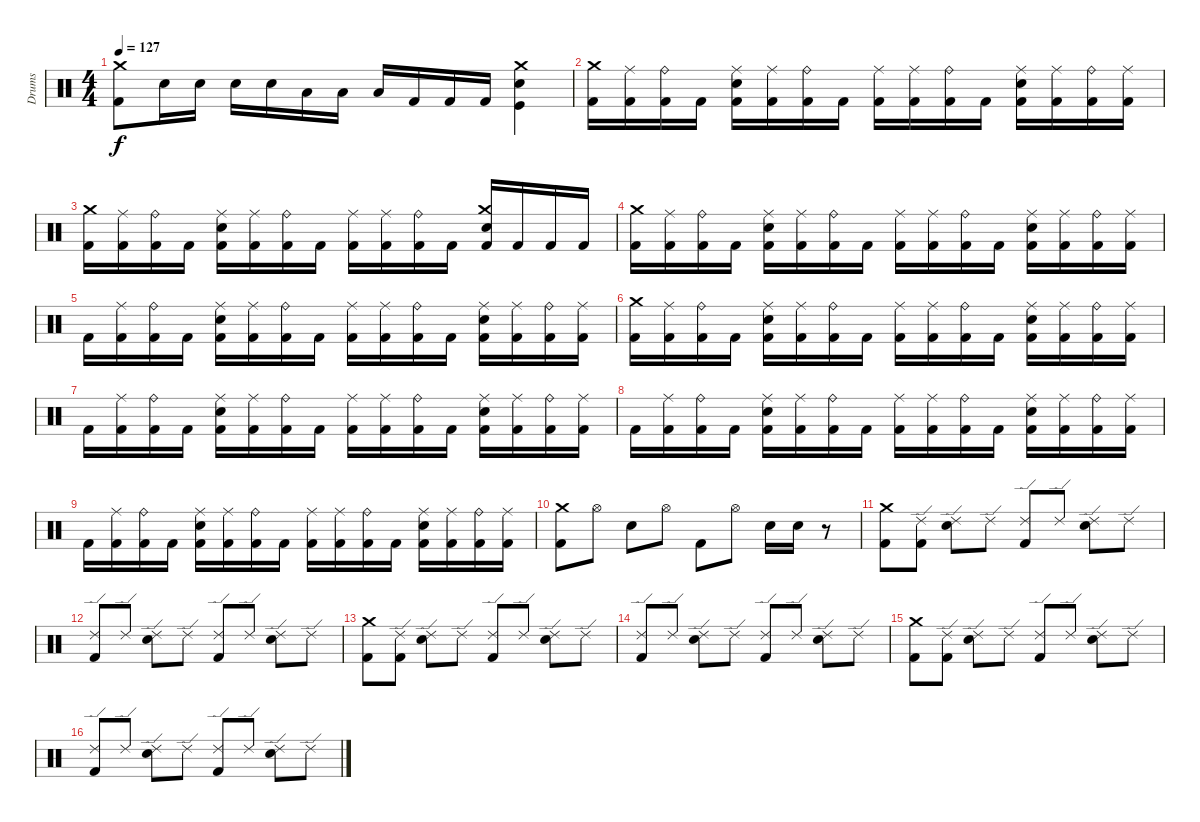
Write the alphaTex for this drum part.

\track ("Drums" "Drums") {instrument percussion}
\staff {score}
\articulation defaults
\ts (4 4)
\tempo 127
\clef neutral
\ks c
("Kick (hit) 2" "Crash medium (hit)").8{dy f} "Electric Snare (hit)".16 "Electric Snare (hit)".16 "Electric Snare (hit)".16 "Electric Snare (hit)".16 "Low Tom (hit)".16 "Low Tom (hit)".16 "Low Tom (hit)".16 "Kick (hit) 2".16 "Kick (hit) 2".16 "Kick (hit) 2".16 ("Kick (hit)" "Electric Snare (hit)" "Crash medium (hit)").4 |
("Kick (hit) 2" "Crash medium (hit)").16 ("Kick (hit) 2" "Ride (middle)").16 ("Kick (hit) 2" "Ride (bell)").16 "Kick (hit) 2".16 ("Kick (hit) 2" "Electric Snare (hit)" "Ride (middle)").16 ("Kick (hit) 2" "Ride (middle)").16 ("Kick (hit) 2" "Ride (bell)").16 "Kick (hit) 2".16 ("Kick (hit) 2" "Ride (middle)").16 ("Kick (hit) 2" "Ride (middle)").16 ("Kick (hit) 2" "Ride (bell)").16 "Kick (hit) 2".16 ("Kick (hit) 2" "Electric Snare (hit)" "Ride (middle)").16 ("Kick (hit) 2" "Ride (middle)").16 ("Kick (hit) 2" "Ride (bell)").16 ("Kick (hit) 2" "Ride (middle)").16 |
("Kick (hit) 2" "Crash medium (hit)").16 ("Kick (hit) 2" "Ride (middle)").16 ("Kick (hit) 2" "Ride (bell)").16 "Kick (hit) 2".16 ("Kick (hit) 2" "Electric Snare (hit)" "Ride (middle)").16 ("Kick (hit) 2" "Ride (middle)").16 ("Kick (hit) 2" "Ride (bell)").16 "Kick (hit) 2".16 ("Kick (hit) 2" "Ride (middle)").16 ("Kick (hit) 2" "Ride (middle)").16 ("Kick (hit) 2" "Ride (bell)").16 "Kick (hit) 2".16 ("Kick (hit) 2" "Electric Snare (hit)" "Crash medium (hit)").16 "Kick (hit) 2".16 "Kick (hit) 2".16 "Kick (hit) 2".16 |
("Kick (hit) 2" "Crash medium (hit)").16 ("Kick (hit) 2" "Ride (middle)").16 ("Kick (hit) 2" "Ride (bell)").16 "Kick (hit) 2".16 ("Kick (hit) 2" "Electric Snare (hit)" "Ride (middle)").16 ("Kick (hit) 2" "Ride (middle)").16 ("Kick (hit) 2" "Ride (bell)").16 "Kick (hit) 2".16 ("Kick (hit) 2" "Ride (middle)").16 ("Kick (hit) 2" "Ride (middle)").16 ("Kick (hit) 2" "Ride (bell)").16 "Kick (hit) 2".16 ("Kick (hit) 2" "Electric Snare (hit)" "Ride (middle)").16 ("Kick (hit) 2" "Ride (middle)").16 ("Kick (hit) 2" "Ride (bell)").16 ("Kick (hit) 2" "Ride (middle)").16 |
"Kick (hit) 2".16 ("Kick (hit) 2" "Ride (middle)").16 ("Kick (hit) 2" "Ride (bell)").16 "Kick (hit) 2".16 ("Kick (hit) 2" "Electric Snare (hit)" "Ride (middle)").16 ("Kick (hit) 2" "Ride (middle)").16 ("Kick (hit) 2" "Ride (bell)").16 "Kick (hit) 2".16 ("Kick (hit) 2" "Ride (middle)").16 ("Kick (hit) 2" "Ride (middle)").16 ("Kick (hit) 2" "Ride (bell)").16 "Kick (hit) 2".16 ("Kick (hit) 2" "Electric Snare (hit)" "Ride (middle)").16 ("Kick (hit) 2" "Ride (middle)").16 ("Kick (hit) 2" "Ride (bell)").16 ("Kick (hit) 2" "Ride (middle)").16 |
("Kick (hit) 2" "Crash medium (hit)").16 ("Kick (hit) 2" "Ride (middle)").16 ("Kick (hit) 2" "Ride (bell)").16 "Kick (hit) 2".16 ("Kick (hit) 2" "Electric Snare (hit)" "Ride (middle)").16 ("Kick (hit) 2" "Ride (middle)").16 ("Kick (hit) 2" "Ride (bell)").16 "Kick (hit) 2".16 ("Kick (hit) 2" "Ride (middle)").16 ("Kick (hit) 2" "Ride (middle)").16 ("Kick (hit) 2" "Ride (bell)").16 "Kick (hit) 2".16 ("Kick (hit) 2" "Electric Snare (hit)" "Ride (middle)").16 ("Kick (hit) 2" "Ride (middle)").16 ("Kick (hit) 2" "Ride (bell)").16 ("Kick (hit) 2" "Ride (middle)").16 |
"Kick (hit) 2".16 ("Kick (hit) 2" "Ride (middle)").16 ("Kick (hit) 2" "Ride (bell)").16 "Kick (hit) 2".16 ("Kick (hit) 2" "Electric Snare (hit)" "Ride (middle)").16 ("Kick (hit) 2" "Ride (middle)").16 ("Kick (hit) 2" "Ride (bell)").16 "Kick (hit) 2".16 ("Kick (hit) 2" "Ride (middle)").16 ("Kick (hit) 2" "Ride (middle)").16 ("Kick (hit) 2" "Ride (bell)").16 "Kick (hit) 2".16 ("Kick (hit) 2" "Electric Snare (hit)" "Ride (middle)").16 ("Kick (hit) 2" "Ride (middle)").16 ("Kick (hit) 2" "Ride (bell)").16 ("Kick (hit) 2" "Ride (middle)").16 |
"Kick (hit) 2".16 ("Kick (hit) 2" "Ride (middle)").16 ("Kick (hit) 2" "Ride (bell)").16 "Kick (hit) 2".16 ("Kick (hit) 2" "Electric Snare (hit)" "Ride (middle)").16 ("Kick (hit) 2" "Ride (middle)").16 ("Kick (hit) 2" "Ride (bell)").16 "Kick (hit) 2".16 ("Kick (hit) 2" "Ride (middle)").16 ("Kick (hit) 2" "Ride (middle)").16 ("Kick (hit) 2" "Ride (bell)").16 "Kick (hit) 2".16 ("Kick (hit) 2" "Electric Snare (hit)" "Ride (middle)").16 ("Kick (hit) 2" "Ride (middle)").16 ("Kick (hit) 2" "Ride (bell)").16 ("Kick (hit) 2" "Ride (middle)").16 |
"Kick (hit) 2".16 ("Kick (hit) 2" "Ride (middle)").16 ("Kick (hit) 2" "Ride (bell)").16 "Kick (hit) 2".16 ("Kick (hit) 2" "Electric Snare (hit)" "Ride (middle)").16 ("Kick (hit) 2" "Ride (middle)").16 ("Kick (hit) 2" "Ride (bell)").16 "Kick (hit) 2".16 ("Kick (hit) 2" "Ride (middle)").16 ("Kick (hit) 2" "Ride (middle)").16 ("Kick (hit) 2" "Ride (bell)").16 "Kick (hit) 2".16 ("Kick (hit) 2" "Electric Snare (hit)" "Ride (middle)").16 ("Kick (hit) 2" "Ride (middle)").16 ("Kick (hit) 2" "Ride (bell)").16 ("Kick (hit) 2" "Ride (middle)").16 |
("Kick (hit) 2" "Crash medium (hit)").8 "Hi-Hat (open)".8 "Electric Snare (hit)".8 "Hi-Hat (open)".8 "Kick (hit) 2".8 "Hi-Hat (open)".8 "Electric Snare (hit)".16 "Electric Snare (hit)".16 r.8 |
("Kick (hit) 2" "Crash medium (hit)").8 ("Kick (hit) 2" "Ride (edge) 2").8 ("Electric Snare (hit)" "Ride (edge) 2").8 "Ride (edge) 2".8 ("Kick (hit) 2" "Ride (edge) 2").8 "Ride (edge) 2".8 ("Electric Snare (hit)" "Ride (edge) 2").8 "Ride (edge) 2".8 |
("Kick (hit) 2" "Ride (edge) 2").8 "Ride (edge) 2".8 ("Electric Snare (hit)" "Ride (edge) 2").8 "Ride (edge) 2".8 ("Kick (hit) 2" "Ride (edge) 2").8 "Ride (edge) 2".8 ("Electric Snare (hit)" "Ride (edge) 2").8 "Ride (edge) 2".8 |
("Kick (hit) 2" "Crash medium (hit)").8 ("Kick (hit) 2" "Ride (edge) 2").8 ("Electric Snare (hit)" "Ride (edge) 2").8 "Ride (edge) 2".8 ("Kick (hit) 2" "Ride (edge) 2").8 "Ride (edge) 2".8 ("Electric Snare (hit)" "Ride (edge) 2").8 "Ride (edge) 2".8 |
("Kick (hit) 2" "Ride (edge) 2").8 "Ride (edge) 2".8 ("Electric Snare (hit)" "Ride (edge) 2").8 "Ride (edge) 2".8 ("Kick (hit) 2" "Ride (edge) 2").8 "Ride (edge) 2".8 ("Electric Snare (hit)" "Ride (edge) 2").8 "Ride (edge) 2".8 |
("Kick (hit) 2" "Crash medium (hit)").8 ("Kick (hit) 2" "Ride (edge) 2").8 ("Electric Snare (hit)" "Ride (edge) 2").8 "Ride (edge) 2".8 ("Kick (hit) 2" "Ride (edge) 2").8 "Ride (edge) 2".8 ("Electric Snare (hit)" "Ride (edge) 2").8 "Ride (edge) 2".8 |
("Kick (hit) 2" "Ride (edge) 2").8 "Ride (edge) 2".8 ("Electric Snare (hit)" "Ride (edge) 2").8 "Ride (edge) 2".8 ("Kick (hit) 2" "Ride (edge) 2").8 "Ride (edge) 2".8 ("Electric Snare (hit)" "Ride (edge) 2").8 "Ride (edge) 2".8
